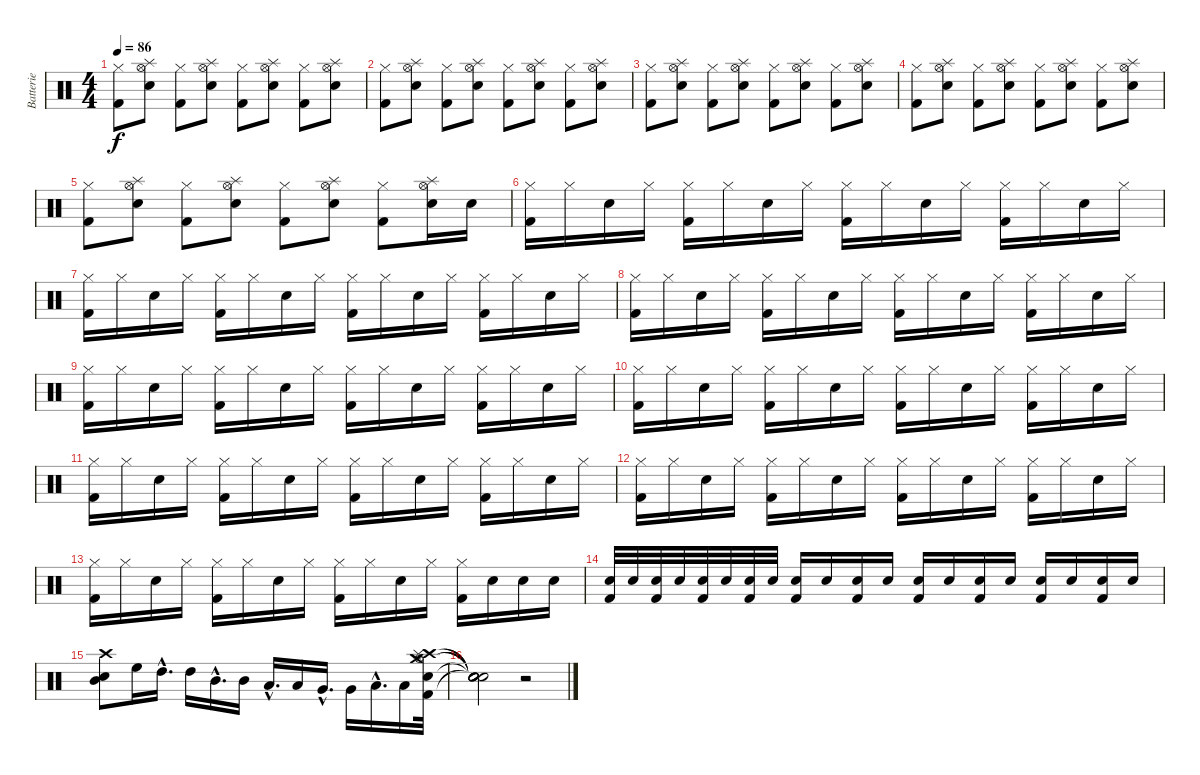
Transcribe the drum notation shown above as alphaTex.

\track ("Batterie" "Batterie") {instrument percussion}
\staff {score}
\articulation defaults
\ts (4 4)
\tempo 86
\clef neutral
\ks c
("Hi-Hat (closed)" "Kick (hit) 2").8{dy f} ("Hi-Hat (open)" "Splash (hit)" "Snare (hit) 2").8 ("Hi-Hat (closed)" "Kick (hit) 2").8 ("Hi-Hat (open)" "Splash (hit)" "Snare (hit) 2").8 ("Hi-Hat (closed)" "Kick (hit) 2").8 ("Hi-Hat (open)" "Splash (hit)" "Snare (hit) 2").8 ("Hi-Hat (closed)" "Kick (hit) 2").8 ("Hi-Hat (open)" "Splash (hit)" "Snare (hit) 2").8 |
("Hi-Hat (closed)" "Kick (hit) 2").8 ("Hi-Hat (open)" "Splash (hit)" "Snare (hit) 2").8 ("Hi-Hat (closed)" "Kick (hit) 2").8 ("Hi-Hat (open)" "Splash (hit)" "Snare (hit) 2").8 ("Hi-Hat (closed)" "Kick (hit) 2").8 ("Hi-Hat (open)" "Splash (hit)" "Snare (hit) 2").8 ("Hi-Hat (closed)" "Kick (hit) 2").8 ("Hi-Hat (open)" "Splash (hit)" "Snare (hit) 2").8 |
("Hi-Hat (closed)" "Kick (hit) 2").8 ("Hi-Hat (open)" "Splash (hit)" "Snare (hit) 2").8 ("Hi-Hat (closed)" "Kick (hit) 2").8 ("Hi-Hat (open)" "Splash (hit)" "Snare (hit) 2").8 ("Hi-Hat (closed)" "Kick (hit) 2").8 ("Hi-Hat (open)" "Splash (hit)" "Snare (hit) 2").8 ("Hi-Hat (closed)" "Kick (hit) 2").8 ("Hi-Hat (open)" "Splash (hit)" "Snare (hit) 2").8 |
("Hi-Hat (closed)" "Kick (hit) 2").8 ("Hi-Hat (open)" "Splash (hit)" "Snare (hit) 2").8 ("Hi-Hat (closed)" "Kick (hit) 2").8 ("Hi-Hat (open)" "Splash (hit)" "Snare (hit) 2").8 ("Hi-Hat (closed)" "Kick (hit) 2").8 ("Hi-Hat (open)" "Splash (hit)" "Snare (hit) 2").8 ("Hi-Hat (closed)" "Kick (hit) 2").8 ("Hi-Hat (open)" "Splash (hit)" "Snare (hit) 2").8 |
("Hi-Hat (closed)" "Kick (hit) 2").8 ("Hi-Hat (open)" "Splash (hit)" "Snare (hit) 2").8 ("Hi-Hat (closed)" "Kick (hit) 2").8 ("Hi-Hat (open)" "Splash (hit)" "Snare (hit) 2").8 ("Hi-Hat (closed)" "Kick (hit) 2").8 ("Hi-Hat (open)" "Splash (hit)" "Snare (hit) 2").8 ("Hi-Hat (closed)" "Kick (hit) 2").8 ("Hi-Hat (open)" "Splash (hit)" "Snare (hit) 2").16 "Snare (hit) 2".16 |
("Hi-Hat (closed)" "Kick (hit) 2").16 "Hi-Hat (closed)".16 "Snare (hit) 2".16 "Hi-Hat (closed)".16 ("Hi-Hat (closed)" "Kick (hit) 2").16 "Hi-Hat (closed)".16 "Snare (hit) 2".16 "Hi-Hat (closed)".16 ("Hi-Hat (closed)" "Kick (hit) 2").16 "Hi-Hat (closed)".16 "Snare (hit) 2".16 "Hi-Hat (closed)".16 ("Hi-Hat (closed)" "Kick (hit) 2").16 "Hi-Hat (closed)".16 "Snare (hit) 2".16 "Hi-Hat (closed)".16 |
("Hi-Hat (closed)" "Kick (hit) 2").16 "Hi-Hat (closed)".16 "Snare (hit) 2".16 "Hi-Hat (closed)".16 ("Hi-Hat (closed)" "Kick (hit) 2").16 "Hi-Hat (closed)".16 "Snare (hit) 2".16 "Hi-Hat (closed)".16 ("Hi-Hat (closed)" "Kick (hit) 2").16 "Hi-Hat (closed)".16 "Snare (hit) 2".16 "Hi-Hat (closed)".16 ("Hi-Hat (closed)" "Kick (hit) 2").16 "Hi-Hat (closed)".16 "Snare (hit) 2".16 "Hi-Hat (closed)".16 |
("Hi-Hat (closed)" "Kick (hit) 2").16 "Hi-Hat (closed)".16 "Snare (hit) 2".16 "Hi-Hat (closed)".16 ("Hi-Hat (closed)" "Kick (hit) 2").16 "Hi-Hat (closed)".16 "Snare (hit) 2".16 "Hi-Hat (closed)".16 ("Hi-Hat (closed)" "Kick (hit) 2").16 "Hi-Hat (closed)".16 "Snare (hit) 2".16 "Hi-Hat (closed)".16 ("Hi-Hat (closed)" "Kick (hit) 2").16 "Hi-Hat (closed)".16 "Snare (hit) 2".16 "Hi-Hat (closed)".16 |
("Hi-Hat (closed)" "Kick (hit) 2").16 "Hi-Hat (closed)".16 "Snare (hit) 2".16 "Hi-Hat (closed)".16 ("Hi-Hat (closed)" "Kick (hit) 2").16 "Hi-Hat (closed)".16 "Snare (hit) 2".16 "Hi-Hat (closed)".16 ("Hi-Hat (closed)" "Kick (hit) 2").16 "Hi-Hat (closed)".16 "Snare (hit) 2".16 "Hi-Hat (closed)".16 ("Hi-Hat (closed)" "Kick (hit) 2").16 "Hi-Hat (closed)".16 "Snare (hit) 2".16 "Hi-Hat (closed)".16 |
("Hi-Hat (closed)" "Kick (hit) 2").16 "Hi-Hat (closed)".16 "Snare (hit) 2".16 "Hi-Hat (closed)".16 ("Hi-Hat (closed)" "Kick (hit) 2").16 "Hi-Hat (closed)".16 "Snare (hit) 2".16 "Hi-Hat (closed)".16 ("Hi-Hat (closed)" "Kick (hit) 2").16 "Hi-Hat (closed)".16 "Snare (hit) 2".16 "Hi-Hat (closed)".16 ("Hi-Hat (closed)" "Kick (hit) 2").16 "Hi-Hat (closed)".16 "Snare (hit) 2".16 "Hi-Hat (closed)".16 |
("Hi-Hat (closed)" "Kick (hit) 2").16 "Hi-Hat (closed)".16 "Snare (hit) 2".16 "Hi-Hat (closed)".16 ("Hi-Hat (closed)" "Kick (hit) 2").16 "Hi-Hat (closed)".16 "Snare (hit) 2".16 "Hi-Hat (closed)".16 ("Hi-Hat (closed)" "Kick (hit) 2").16 "Hi-Hat (closed)".16 "Snare (hit) 2".16 "Hi-Hat (closed)".16 ("Hi-Hat (closed)" "Kick (hit) 2").16 "Hi-Hat (closed)".16 "Snare (hit) 2".16 "Hi-Hat (closed)".16 |
("Hi-Hat (closed)" "Kick (hit) 2").16 "Hi-Hat (closed)".16 "Snare (hit) 2".16 "Hi-Hat (closed)".16 ("Hi-Hat (closed)" "Kick (hit) 2").16 "Hi-Hat (closed)".16 "Snare (hit) 2".16 "Hi-Hat (closed)".16 ("Hi-Hat (closed)" "Kick (hit) 2").16 "Hi-Hat (closed)".16 "Snare (hit) 2".16 "Hi-Hat (closed)".16 ("Hi-Hat (closed)" "Kick (hit) 2").16 "Hi-Hat (closed)".16 "Snare (hit) 2".16 "Hi-Hat (closed)".16 |
("Hi-Hat (closed)" "Kick (hit) 2").16 "Hi-Hat (closed)".16 "Snare (hit) 2".16 "Hi-Hat (closed)".16 ("Hi-Hat (closed)" "Kick (hit) 2").16 "Hi-Hat (closed)".16 "Snare (hit) 2".16 "Hi-Hat (closed)".16 ("Hi-Hat (closed)" "Kick (hit) 2").16 "Hi-Hat (closed)".16 "Snare (hit) 2".16 "Hi-Hat (closed)".16 ("Hi-Hat (closed)" "Kick (hit) 2").16 "Snare (hit) 2".16 "Snare (hit) 2".16 "Snare (hit) 2".16 |
("Snare (hit) 2" "Kick (hit) 2").32 "Snare (hit) 2".32 ("Snare (hit) 2" "Kick (hit) 2").32 "Snare (hit) 2".32 ("Snare (hit) 2" "Kick (hit) 2").32 "Snare (hit) 2".32 ("Snare (hit) 2" "Kick (hit) 2").32 "Snare (hit) 2".32 ("Snare (hit) 2" "Kick (hit) 2").16 "Snare (hit) 2".16 ("Snare (hit) 2" "Kick (hit) 2").16 "Snare (hit) 2".16 ("Snare (hit) 2" "Kick (hit) 2").16 "Snare (hit) 2".16 ("Snare (hit) 2" "Kick (hit) 2").16 "Snare (hit) 2".16 ("Snare (hit) 2" "Kick (hit) 2").16 "Snare (hit) 2".16 ("Snare (hit) 2" "Kick (hit) 2").16 "Snare (hit) 2".16 |
("Mid Tom (hit)" "Crash high (hit)" "Snare (hit) 2").8 "High Floor Tom (hit)".16 "High Tom (hit)"{hac}.16{d} "High Tom (hit)".16 "Mid Tom (hit)"{hac}.16{d} "Mid Tom (hit)".16 "Low Tom (hit)"{hac}.16{d} "Low Tom (hit)".16 "Very Low Tom (hit)"{hac}.16{d} "Very Low Tom (hit)".16 "Low Floor Tom (hit)"{hac}.16{d} "Low Floor Tom (hit)".16 ("Crash high (hit)" "Crash medium (hit)" "Snare (hit) 2" "Kick (hit) 2" "Hi-Hat (open)" "Splash (hit)").32 |
("Snare (hit)"{t} "Snare (hit)"{t} "Snare (hit)"{t} "Snare (hit)"{t} "Snare (hit)"{t} "Snare (hit)"{t}).2 r.2
